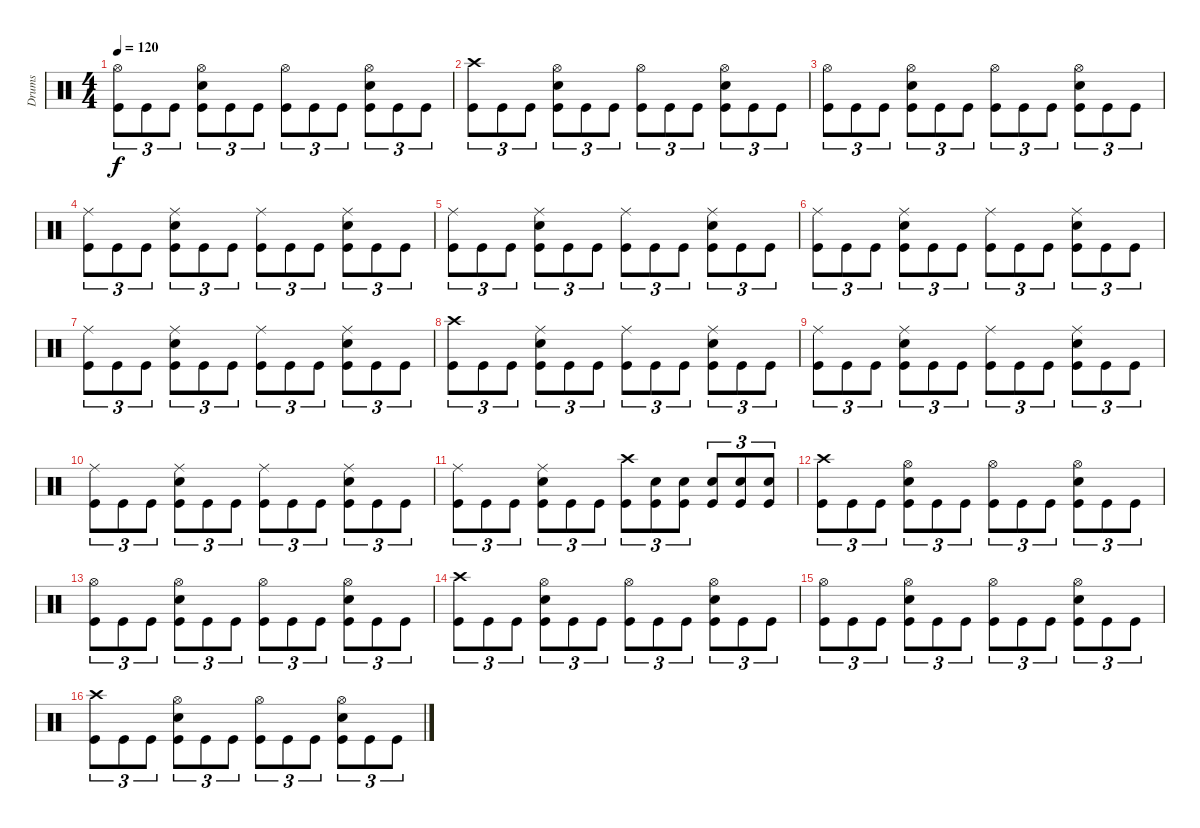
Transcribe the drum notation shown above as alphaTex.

\track ("Drums" "Drums") {instrument percussion}
\staff {score}
\articulation defaults
\ts (4 4)
\tempo 120
\clef neutral
\ks c
("Hi-Hat (open)" "Kick (hit)").8{tu (3 2) dy f} "Kick (hit)".8{tu (3 2)} "Kick (hit)".8{tu (3 2)} ("Hi-Hat (open)" "Snare (hit) 2" "Kick (hit)").8{tu (3 2)} "Kick (hit)".8{tu (3 2)} "Kick (hit)".8{tu (3 2)} ("Hi-Hat (open)" "Kick (hit)").8{tu (3 2)} "Kick (hit)".8{tu (3 2)} "Kick (hit)".8{tu (3 2)} ("Hi-Hat (open)" "Snare (hit) 2" "Kick (hit)").8{tu (3 2)} "Kick (hit)".8{tu (3 2)} "Kick (hit)".8{tu (3 2)} |
("Crash high (hit)" "Kick (hit)").8{tu (3 2)} "Kick (hit)".8{tu (3 2)} "Kick (hit)".8{tu (3 2)} ("Hi-Hat (open)" "Snare (hit) 2" "Kick (hit)").8{tu (3 2)} "Kick (hit)".8{tu (3 2)} "Kick (hit)".8{tu (3 2)} ("Hi-Hat (open)" "Kick (hit)").8{tu (3 2)} "Kick (hit)".8{tu (3 2)} "Kick (hit)".8{tu (3 2)} ("Hi-Hat (open)" "Snare (hit) 2" "Kick (hit)").8{tu (3 2)} "Kick (hit)".8{tu (3 2)} "Kick (hit)".8{tu (3 2)} |
("Hi-Hat (open)" "Kick (hit)").8{tu (3 2)} "Kick (hit)".8{tu (3 2)} "Kick (hit)".8{tu (3 2)} ("Hi-Hat (open)" "Snare (hit) 2" "Kick (hit)").8{tu (3 2)} "Kick (hit)".8{tu (3 2)} "Kick (hit)".8{tu (3 2)} ("Hi-Hat (open)" "Kick (hit)").8{tu (3 2)} "Kick (hit)".8{tu (3 2)} "Kick (hit)".8{tu (3 2)} ("Hi-Hat (open)" "Snare (hit) 2" "Kick (hit)").8{tu (3 2)} "Kick (hit)".8{tu (3 2)} "Kick (hit)".8{tu (3 2)} |
("Ride (middle)" "Kick (hit)").8{tu (3 2)} "Kick (hit)".8{tu (3 2)} "Kick (hit)".8{tu (3 2)} ("Ride (middle)" "Snare (hit) 2" "Kick (hit)").8{tu (3 2)} "Kick (hit)".8{tu (3 2)} "Kick (hit)".8{tu (3 2)} ("Ride (middle)" "Kick (hit)").8{tu (3 2)} "Kick (hit)".8{tu (3 2)} "Kick (hit)".8{tu (3 2)} ("Ride (middle)" "Snare (hit) 2" "Kick (hit)").8{tu (3 2)} "Kick (hit)".8{tu (3 2)} "Kick (hit)".8{tu (3 2)} |
("Ride (middle)" "Kick (hit)").8{tu (3 2)} "Kick (hit)".8{tu (3 2)} "Kick (hit)".8{tu (3 2)} ("Ride (middle)" "Snare (hit) 2" "Kick (hit)").8{tu (3 2)} "Kick (hit)".8{tu (3 2)} "Kick (hit)".8{tu (3 2)} ("Ride (middle)" "Kick (hit)").8{tu (3 2)} "Kick (hit)".8{tu (3 2)} "Kick (hit)".8{tu (3 2)} ("Ride (middle)" "Snare (hit) 2" "Kick (hit)").8{tu (3 2)} "Kick (hit)".8{tu (3 2)} "Kick (hit)".8{tu (3 2)} |
("Ride (middle)" "Kick (hit)").8{tu (3 2)} "Kick (hit)".8{tu (3 2)} "Kick (hit)".8{tu (3 2)} ("Ride (middle)" "Snare (hit) 2" "Kick (hit)").8{tu (3 2)} "Kick (hit)".8{tu (3 2)} "Kick (hit)".8{tu (3 2)} ("Ride (middle)" "Kick (hit)").8{tu (3 2)} "Kick (hit)".8{tu (3 2)} "Kick (hit)".8{tu (3 2)} ("Ride (middle)" "Snare (hit) 2" "Kick (hit)").8{tu (3 2)} "Kick (hit)".8{tu (3 2)} "Kick (hit)".8{tu (3 2)} |
("Ride (middle)" "Kick (hit)").8{tu (3 2)} "Kick (hit)".8{tu (3 2)} "Kick (hit)".8{tu (3 2)} ("Ride (middle)" "Snare (hit) 2" "Kick (hit)").8{tu (3 2)} "Kick (hit)".8{tu (3 2)} "Kick (hit)".8{tu (3 2)} ("Ride (middle)" "Kick (hit)").8{tu (3 2)} "Kick (hit)".8{tu (3 2)} "Kick (hit)".8{tu (3 2)} ("Ride (middle)" "Snare (hit) 2" "Kick (hit)").8{tu (3 2)} "Kick (hit)".8{tu (3 2)} "Kick (hit)".8{tu (3 2)} |
("Crash high (hit)" "Kick (hit)").8{tu (3 2)} "Kick (hit)".8{tu (3 2)} "Kick (hit)".8{tu (3 2)} ("Ride (middle)" "Snare (hit) 2" "Kick (hit)").8{tu (3 2)} "Kick (hit)".8{tu (3 2)} "Kick (hit)".8{tu (3 2)} ("Ride (middle)" "Kick (hit)").8{tu (3 2)} "Kick (hit)".8{tu (3 2)} "Kick (hit)".8{tu (3 2)} ("Ride (middle)" "Snare (hit) 2" "Kick (hit)").8{tu (3 2)} "Kick (hit)".8{tu (3 2)} "Kick (hit)".8{tu (3 2)} |
("Ride (middle)" "Kick (hit)").8{tu (3 2)} "Kick (hit)".8{tu (3 2)} "Kick (hit)".8{tu (3 2)} ("Ride (middle)" "Snare (hit) 2" "Kick (hit)").8{tu (3 2)} "Kick (hit)".8{tu (3 2)} "Kick (hit)".8{tu (3 2)} ("Ride (middle)" "Kick (hit)").8{tu (3 2)} "Kick (hit)".8{tu (3 2)} "Kick (hit)".8{tu (3 2)} ("Ride (middle)" "Snare (hit) 2" "Kick (hit)").8{tu (3 2)} "Kick (hit)".8{tu (3 2)} "Kick (hit)".8{tu (3 2)} |
("Ride (middle)" "Kick (hit)").8{tu (3 2)} "Kick (hit)".8{tu (3 2)} "Kick (hit)".8{tu (3 2)} ("Ride (middle)" "Snare (hit) 2" "Kick (hit)").8{tu (3 2)} "Kick (hit)".8{tu (3 2)} "Kick (hit)".8{tu (3 2)} ("Ride (middle)" "Kick (hit)").8{tu (3 2)} "Kick (hit)".8{tu (3 2)} "Kick (hit)".8{tu (3 2)} ("Ride (middle)" "Snare (hit) 2" "Kick (hit)").8{tu (3 2)} "Kick (hit)".8{tu (3 2)} "Kick (hit)".8{tu (3 2)} |
("Ride (middle)" "Kick (hit)").8{tu (3 2)} "Kick (hit)".8{tu (3 2)} "Kick (hit)".8{tu (3 2)} ("Ride (middle)" "Snare (hit) 2" "Kick (hit)").8{tu (3 2)} "Kick (hit)".8{tu (3 2)} "Kick (hit)".8{tu (3 2)} ("Crash high (hit)" "Kick (hit)").8{tu (3 2)} ("Snare (hit) 2" "Kick (hit)").8{tu (3 2)} ("Snare (hit) 2" "Kick (hit)").8{tu (3 2)} ("Snare (hit) 2" "Kick (hit)").8{tu (3 2)} ("Snare (hit) 2" "Kick (hit)").8{tu (3 2)} ("Snare (hit) 2" "Kick (hit)").8{tu (3 2)} |
("Crash high (hit)" "Kick (hit)").8{tu (3 2)} "Kick (hit)".8{tu (3 2)} "Kick (hit)".8{tu (3 2)} ("Hi-Hat (open)" "Snare (hit) 2" "Kick (hit)").8{tu (3 2)} "Kick (hit)".8{tu (3 2)} "Kick (hit)".8{tu (3 2)} ("Hi-Hat (open)" "Kick (hit)").8{tu (3 2)} "Kick (hit)".8{tu (3 2)} "Kick (hit)".8{tu (3 2)} ("Hi-Hat (open)" "Snare (hit) 2" "Kick (hit)").8{tu (3 2)} "Kick (hit)".8{tu (3 2)} "Kick (hit)".8{tu (3 2)} |
("Hi-Hat (open)" "Kick (hit)").8{tu (3 2)} "Kick (hit)".8{tu (3 2)} "Kick (hit)".8{tu (3 2)} ("Hi-Hat (open)" "Snare (hit) 2" "Kick (hit)").8{tu (3 2)} "Kick (hit)".8{tu (3 2)} "Kick (hit)".8{tu (3 2)} ("Hi-Hat (open)" "Kick (hit)").8{tu (3 2)} "Kick (hit)".8{tu (3 2)} "Kick (hit)".8{tu (3 2)} ("Hi-Hat (open)" "Snare (hit) 2" "Kick (hit)").8{tu (3 2)} "Kick (hit)".8{tu (3 2)} "Kick (hit)".8{tu (3 2)} |
("Crash high (hit)" "Kick (hit)").8{tu (3 2)} "Kick (hit)".8{tu (3 2)} "Kick (hit)".8{tu (3 2)} ("Hi-Hat (open)" "Snare (hit) 2" "Kick (hit)").8{tu (3 2)} "Kick (hit)".8{tu (3 2)} "Kick (hit)".8{tu (3 2)} ("Hi-Hat (open)" "Kick (hit)").8{tu (3 2)} "Kick (hit)".8{tu (3 2)} "Kick (hit)".8{tu (3 2)} ("Hi-Hat (open)" "Snare (hit) 2" "Kick (hit)").8{tu (3 2)} "Kick (hit)".8{tu (3 2)} "Kick (hit)".8{tu (3 2)} |
("Hi-Hat (open)" "Kick (hit)").8{tu (3 2)} "Kick (hit)".8{tu (3 2)} "Kick (hit)".8{tu (3 2)} ("Hi-Hat (open)" "Snare (hit) 2" "Kick (hit)").8{tu (3 2)} "Kick (hit)".8{tu (3 2)} "Kick (hit)".8{tu (3 2)} ("Hi-Hat (open)" "Kick (hit)").8{tu (3 2)} "Kick (hit)".8{tu (3 2)} "Kick (hit)".8{tu (3 2)} ("Hi-Hat (open)" "Snare (hit) 2" "Kick (hit)").8{tu (3 2)} "Kick (hit)".8{tu (3 2)} "Kick (hit)".8{tu (3 2)} |
("Crash high (hit)" "Kick (hit)").8{tu (3 2)} "Kick (hit)".8{tu (3 2)} "Kick (hit)".8{tu (3 2)} ("Hi-Hat (open)" "Snare (hit) 2" "Kick (hit)").8{tu (3 2)} "Kick (hit)".8{tu (3 2)} "Kick (hit)".8{tu (3 2)} ("Hi-Hat (open)" "Kick (hit)").8{tu (3 2)} "Kick (hit)".8{tu (3 2)} "Kick (hit)".8{tu (3 2)} ("Hi-Hat (open)" "Snare (hit) 2" "Kick (hit)").8{tu (3 2)} "Kick (hit)".8{tu (3 2)} "Kick (hit)".8{tu (3 2)}
